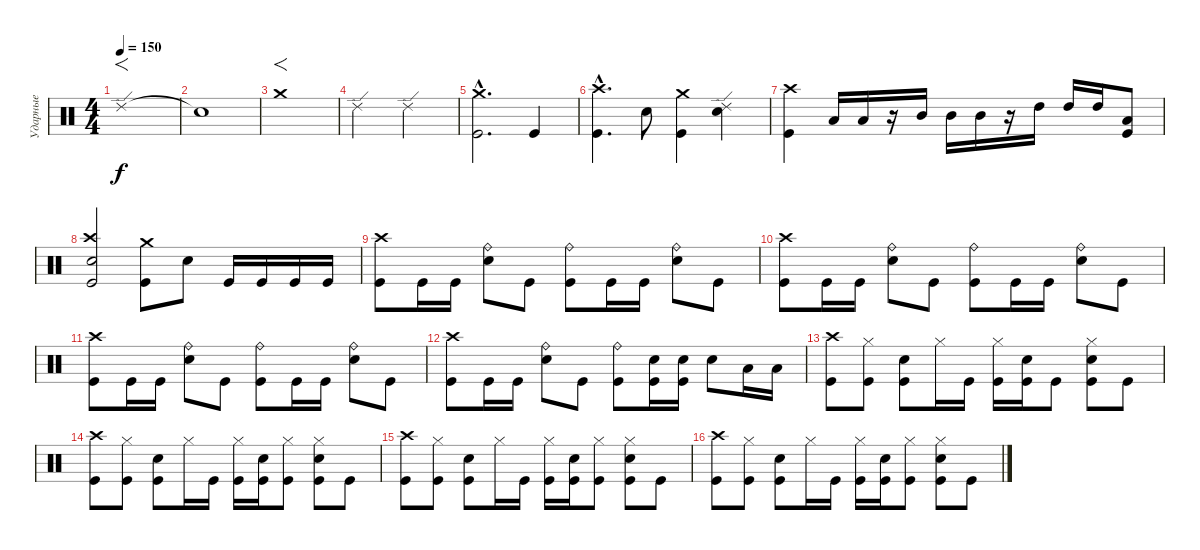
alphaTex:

\track ("Ударные" "Ударные") {instrument percussion}
\staff {score}
\articulation defaults
\ts (4 4)
\tempo 150
\clef neutral
\ks c "Ride (edge) 2".1{f dy f}
|
"Snare (hit)"{t}.1 |
"Crash medium (hit)".1{f} |
"Ride (edge) 2".2 "Ride (edge) 2".2 |
("Crash medium (hit)"{hac} "Kick (hit)"{hac}).2{d} "Kick (hit)".4 |
("Crash high (hit)"{hac} "Kick (hit)"{hac}).4{d} "Electric Snare (hit)".8 ("Crash medium (hit)" "Kick (hit)").4 ("Ride (edge) 2" "Electric Snare (hit)").4 |
("Crash high (hit)" "Kick (hit)").4 "Low Tom (hit)".16 "Low Tom (hit)".16 r.16 "Mid Tom (hit)".16 "Mid Tom (hit)".16 "Mid Tom (hit)".16 r.16 "High Tom (hit)".16 "High Tom (hit)".16 "High Tom (hit)".16 ("Low Tom (hit)" "Kick (hit)").8 |
("Crash high (hit)" "Electric Snare (hit)" "Kick (hit)").2 ("Crash medium (hit)" "Kick (hit)").8 "Electric Snare (hit)".8 "Kick (hit)".16 "Kick (hit)".16 "Kick (hit)".16 "Kick (hit)".16 |
("Crash high (hit)" "Kick (hit)").8 "Kick (hit)".16 "Kick (hit)".16 ("Ride (bell)" "Electric Snare (hit)").8 "Kick (hit)".8 ("Ride (bell)" "Kick (hit)").8 "Kick (hit)".16 "Kick (hit)".16 ("Ride (bell)" "Electric Snare (hit)").8 "Kick (hit)".8 |
("Crash high (hit)" "Kick (hit)").8 "Kick (hit)".16 "Kick (hit)".16 ("Ride (bell)" "Electric Snare (hit)").8 "Kick (hit)".8 ("Ride (bell)" "Kick (hit)").8 "Kick (hit)".16 "Kick (hit)".16 ("Ride (bell)" "Electric Snare (hit)").8 "Kick (hit)".8 |
("Crash high (hit)" "Kick (hit)").8 "Kick (hit)".16 "Kick (hit)".16 ("Ride (bell)" "Electric Snare (hit)").8 "Kick (hit)".8 ("Ride (bell)" "Kick (hit)").8 "Kick (hit)".16 "Kick (hit)".16 ("Ride (bell)" "Electric Snare (hit)").8 "Kick (hit)".8 |
("Crash high (hit)" "Kick (hit)").8 "Kick (hit)".16 "Kick (hit)".16 ("Ride (bell)" "Electric Snare (hit)").8 "Kick (hit)".8 ("Ride (bell)" "Kick (hit)").8 ("Electric Snare (hit)" "Kick (hit)").16 ("Electric Snare (hit)" "Kick (hit)").16 "Electric Snare (hit)".8 "Low Tom (hit)".16 "Low Tom (hit)".16 |
("Crash high (hit)" "Kick (hit)").8 ("Hi-Hat (closed)" "Kick (hit)").8 ("Electric Snare (hit)" "Kick (hit)").8 "Hi-Hat (closed)".16 "Kick (hit)".16 ("Hi-Hat (closed)" "Kick (hit)").16 ("Electric Snare (hit)" "Kick (hit)").16 "Kick (hit)".8 ("Hi-Hat (closed)" "Electric Snare (hit)" "Kick (hit)").8 "Kick (hit)".8 |
("Crash high (hit)" "Kick (hit)").8 ("Hi-Hat (closed)" "Kick (hit)").8 ("Electric Snare (hit)" "Kick (hit)").8 "Hi-Hat (closed)".16 "Kick (hit)".16 ("Hi-Hat (closed)" "Kick (hit)").16 ("Electric Snare (hit)" "Kick (hit)").16 ("Hi-Hat (closed)" "Kick (hit)").8 ("Hi-Hat (closed)" "Electric Snare (hit)" "Kick (hit)").8 "Kick (hit)".8 |
("Crash high (hit)" "Kick (hit)").8 ("Hi-Hat (closed)" "Kick (hit)").8 ("Electric Snare (hit)" "Kick (hit)").8 "Hi-Hat (closed)".16 "Kick (hit)".16 ("Hi-Hat (closed)" "Kick (hit)").16 ("Electric Snare (hit)" "Kick (hit)").16 ("Hi-Hat (closed)" "Kick (hit)").8 ("Hi-Hat (closed)" "Electric Snare (hit)" "Kick (hit)").8 "Kick (hit)".8 |
("Crash high (hit)" "Kick (hit)").8 ("Hi-Hat (closed)" "Kick (hit)").8 ("Electric Snare (hit)" "Kick (hit)").8 "Hi-Hat (closed)".16 "Kick (hit)".16 ("Hi-Hat (closed)" "Kick (hit)").16 ("Electric Snare (hit)" "Kick (hit)").16 ("Hi-Hat (closed)" "Kick (hit)").8 ("Hi-Hat (closed)" "Electric Snare (hit)" "Kick (hit)").8 "Kick (hit)".8
